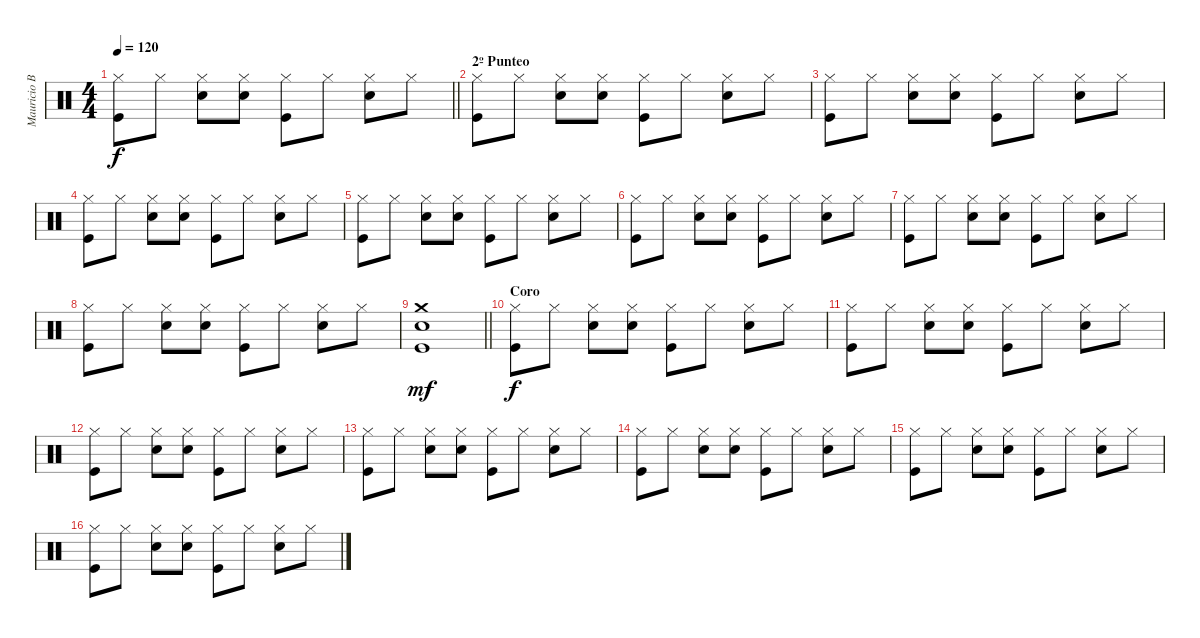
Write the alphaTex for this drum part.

\track ("Mauricio Basualto" "Mauricio B") {instrument percussion}
\staff {score}
\articulation defaults
\ts (4 4)
\tempo 120
\clef neutral
\barLineRight lightlight
\ks c
("Hi-Hat (closed)" "Kick (hit)").8{dy f} "Hi-Hat (closed)".8 ("Hi-Hat (closed)" "Electric Snare (hit)").8 ("Hi-Hat (closed)" "Electric Snare (hit)").8 ("Hi-Hat (closed)" "Kick (hit)").8 "Hi-Hat (closed)".8 ("Hi-Hat (closed)" "Electric Snare (hit)").8 "Hi-Hat (closed)".8 |
\section ("" "2º Punteo")
("Hi-Hat (closed)" "Kick (hit)").8 "Hi-Hat (closed)".8 ("Hi-Hat (closed)" "Electric Snare (hit)").8 ("Hi-Hat (closed)" "Electric Snare (hit)").8 ("Hi-Hat (closed)" "Kick (hit)").8 "Hi-Hat (closed)".8 ("Hi-Hat (closed)" "Electric Snare (hit)").8 "Hi-Hat (closed)".8 |
("Hi-Hat (closed)" "Kick (hit)").8 "Hi-Hat (closed)".8 ("Hi-Hat (closed)" "Electric Snare (hit)").8 ("Hi-Hat (closed)" "Electric Snare (hit)").8 ("Hi-Hat (closed)" "Kick (hit)").8 "Hi-Hat (closed)".8 ("Hi-Hat (closed)" "Electric Snare (hit)").8 "Hi-Hat (closed)".8 |
("Hi-Hat (closed)" "Kick (hit)").8 "Hi-Hat (closed)".8 ("Hi-Hat (closed)" "Electric Snare (hit)").8 ("Hi-Hat (closed)" "Electric Snare (hit)").8 ("Hi-Hat (closed)" "Kick (hit)").8 "Hi-Hat (closed)".8 ("Hi-Hat (closed)" "Electric Snare (hit)").8 "Hi-Hat (closed)".8 |
("Hi-Hat (closed)" "Kick (hit)").8 "Hi-Hat (closed)".8 ("Hi-Hat (closed)" "Electric Snare (hit)").8 ("Hi-Hat (closed)" "Electric Snare (hit)").8 ("Hi-Hat (closed)" "Kick (hit)").8 "Hi-Hat (closed)".8 ("Hi-Hat (closed)" "Electric Snare (hit)").8 "Hi-Hat (closed)".8 |
("Hi-Hat (closed)" "Kick (hit)").8 "Hi-Hat (closed)".8 ("Hi-Hat (closed)" "Electric Snare (hit)").8 ("Hi-Hat (closed)" "Electric Snare (hit)").8 ("Hi-Hat (closed)" "Kick (hit)").8 "Hi-Hat (closed)".8 ("Hi-Hat (closed)" "Electric Snare (hit)").8 "Hi-Hat (closed)".8 |
("Hi-Hat (closed)" "Kick (hit)").8 "Hi-Hat (closed)".8 ("Hi-Hat (closed)" "Electric Snare (hit)").8 ("Hi-Hat (closed)" "Electric Snare (hit)").8 ("Hi-Hat (closed)" "Kick (hit)").8 "Hi-Hat (closed)".8 ("Hi-Hat (closed)" "Electric Snare (hit)").8 "Hi-Hat (closed)".8 |
("Hi-Hat (closed)" "Kick (hit)").8 "Hi-Hat (closed)".8 ("Hi-Hat (closed)" "Electric Snare (hit)").8 ("Hi-Hat (closed)" "Electric Snare (hit)").8 ("Hi-Hat (closed)" "Kick (hit)").8 "Hi-Hat (closed)".8 ("Hi-Hat (closed)" "Electric Snare (hit)").8 "Hi-Hat (closed)".8 |
\barLineRight lightlight
("Crash medium (hit)" "Electric Snare (hit)" "Kick (hit)").1{dy mf} |
\section ("" "Coro")
("Hi-Hat (closed)" "Kick (hit)").8{dy f} "Hi-Hat (closed)".8 ("Hi-Hat (closed)" "Electric Snare (hit)").8 ("Hi-Hat (closed)" "Electric Snare (hit)").8 ("Hi-Hat (closed)" "Kick (hit)").8 "Hi-Hat (closed)".8 ("Hi-Hat (closed)" "Electric Snare (hit)").8 "Hi-Hat (closed)".8 |
("Hi-Hat (closed)" "Kick (hit)").8 "Hi-Hat (closed)".8 ("Hi-Hat (closed)" "Electric Snare (hit)").8 ("Hi-Hat (closed)" "Electric Snare (hit)").8 ("Hi-Hat (closed)" "Kick (hit)").8 "Hi-Hat (closed)".8 ("Hi-Hat (closed)" "Electric Snare (hit)").8 "Hi-Hat (closed)".8 |
("Hi-Hat (closed)" "Kick (hit)").8 "Hi-Hat (closed)".8 ("Hi-Hat (closed)" "Electric Snare (hit)").8 ("Hi-Hat (closed)" "Electric Snare (hit)").8 ("Hi-Hat (closed)" "Kick (hit)").8 "Hi-Hat (closed)".8 ("Hi-Hat (closed)" "Electric Snare (hit)").8 "Hi-Hat (closed)".8 |
("Hi-Hat (closed)" "Kick (hit)").8 "Hi-Hat (closed)".8 ("Hi-Hat (closed)" "Electric Snare (hit)").8 ("Hi-Hat (closed)" "Electric Snare (hit)").8 ("Hi-Hat (closed)" "Kick (hit)").8 "Hi-Hat (closed)".8 ("Hi-Hat (closed)" "Electric Snare (hit)").8 "Hi-Hat (closed)".8 |
("Hi-Hat (closed)" "Kick (hit)").8 "Hi-Hat (closed)".8 ("Hi-Hat (closed)" "Electric Snare (hit)").8 ("Hi-Hat (closed)" "Electric Snare (hit)").8 ("Hi-Hat (closed)" "Kick (hit)").8 "Hi-Hat (closed)".8 ("Hi-Hat (closed)" "Electric Snare (hit)").8 "Hi-Hat (closed)".8 |
("Hi-Hat (closed)" "Kick (hit)").8 "Hi-Hat (closed)".8 ("Hi-Hat (closed)" "Electric Snare (hit)").8 ("Hi-Hat (closed)" "Electric Snare (hit)").8 ("Hi-Hat (closed)" "Kick (hit)").8 "Hi-Hat (closed)".8 ("Hi-Hat (closed)" "Electric Snare (hit)").8 "Hi-Hat (closed)".8 |
("Hi-Hat (closed)" "Kick (hit)").8 "Hi-Hat (closed)".8 ("Hi-Hat (closed)" "Electric Snare (hit)").8 ("Hi-Hat (closed)" "Electric Snare (hit)").8 ("Hi-Hat (closed)" "Kick (hit)").8 "Hi-Hat (closed)".8 ("Hi-Hat (closed)" "Electric Snare (hit)").8 "Hi-Hat (closed)".8
